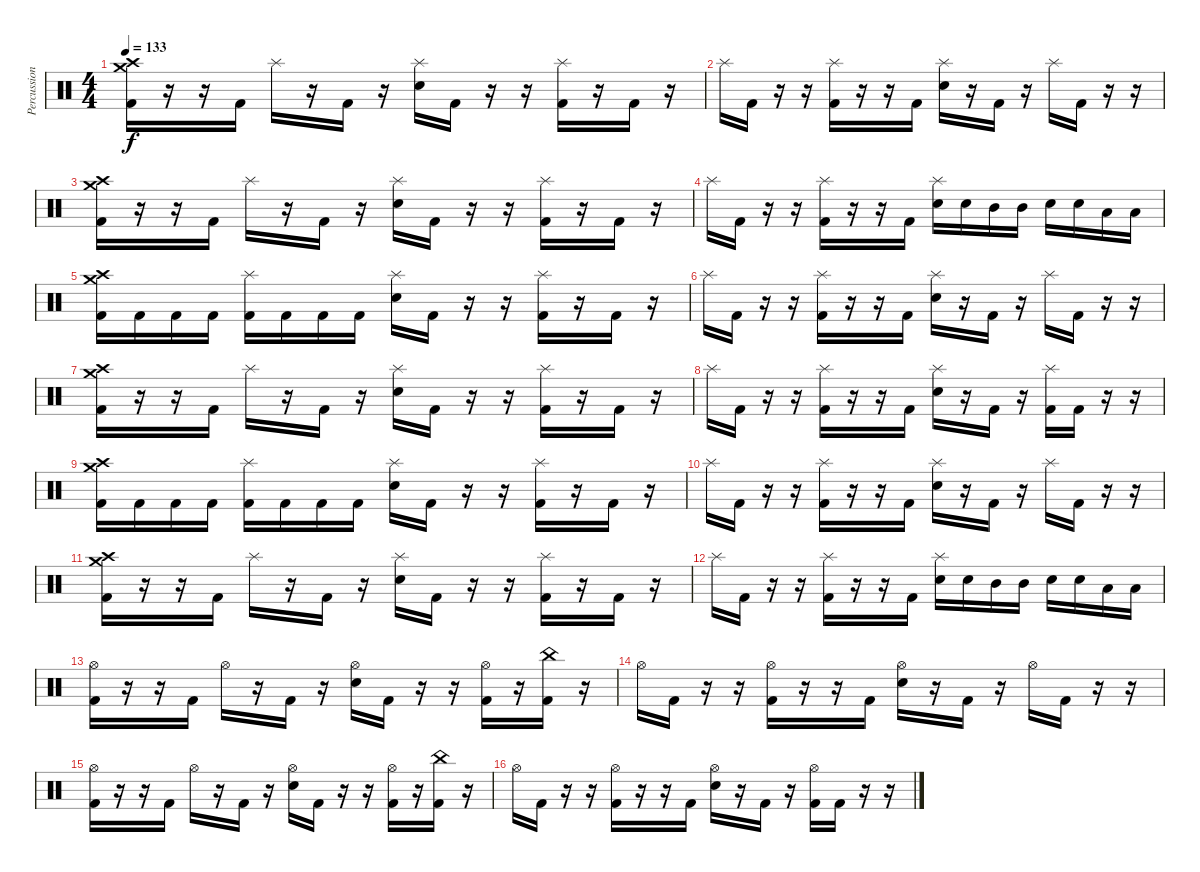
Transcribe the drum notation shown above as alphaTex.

\track ("Percussion" "Percussion") {instrument percussion}
\staff {score}
\articulation defaults
\ts (4 4)
\tempo 133
\clef neutral
\ks c
("Crash high (hit)" "Crash medium (hit)" "Kick (hit) 2").16{dy f} r.16 r.16 "Kick (hit) 2".16 "Splash (hit)".16 r.16 "Kick (hit) 2".16 r.16 ("Splash (hit)" "Electric Snare (hit)").16 "Kick (hit) 2".16 r.16 r.16 ("Splash (hit)" "Kick (hit) 2").16 r.16 "Kick (hit) 2".16 r.16 |
"Splash (hit)".16 "Kick (hit) 2".16 r.16 r.16 ("Splash (hit)" "Kick (hit) 2").16 r.16 r.16 "Kick (hit) 2".16 ("Splash (hit)" "Electric Snare (hit)").16 r.16 "Kick (hit) 2".16 r.16 "Splash (hit)".16 "Kick (hit) 2".16 r.16 r.16 |
("Crash high (hit)" "Crash medium (hit)" "Kick (hit) 2").16 r.16 r.16 "Kick (hit) 2".16 "Splash (hit)".16 r.16 "Kick (hit) 2".16 r.16 ("Splash (hit)" "Electric Snare (hit)").16 "Kick (hit) 2".16 r.16 r.16 ("Splash (hit)" "Kick (hit) 2").16 r.16 "Kick (hit) 2".16 r.16 |
"Splash (hit)".16 "Kick (hit) 2".16 r.16 r.16 ("Splash (hit)" "Kick (hit) 2").16 r.16 r.16 "Kick (hit) 2".16 ("Splash (hit)" "Electric Snare (hit)").16 "Electric Snare (hit)".16 "Mid Tom (hit)".16 "Mid Tom (hit)".16 "Electric Snare (hit)".16 "Electric Snare (hit)".16 "Low Tom (hit)".16 "Low Tom (hit)".16 |
("Crash high (hit)" "Crash medium (hit)" "Kick (hit) 2").16 "Kick (hit) 2".16 "Kick (hit) 2".16 "Kick (hit) 2".16 ("Splash (hit)" "Kick (hit) 2").16 "Kick (hit) 2".16 "Kick (hit) 2".16 "Kick (hit) 2".16 ("Splash (hit)" "Electric Snare (hit)").16 "Kick (hit) 2".16 r.16 r.16 ("Splash (hit)" "Kick (hit) 2").16 r.16 "Kick (hit) 2".16 r.16 |
"Splash (hit)".16 "Kick (hit) 2".16 r.16 r.16 ("Splash (hit)" "Kick (hit) 2").16 r.16 r.16 "Kick (hit) 2".16 ("Splash (hit)" "Electric Snare (hit)").16 r.16 "Kick (hit) 2".16 r.16 "Splash (hit)".16 "Kick (hit) 2".16 r.16 r.16 |
("Crash high (hit)" "Crash medium (hit)" "Kick (hit) 2").16 r.16 r.16 "Kick (hit) 2".16 "Splash (hit)".16 r.16 "Kick (hit) 2".16 r.16 ("Splash (hit)" "Electric Snare (hit)").16 "Kick (hit) 2".16 r.16 r.16 ("Splash (hit)" "Kick (hit) 2").16 r.16 "Kick (hit) 2".16 r.16 |
"Splash (hit)".16 "Kick (hit) 2".16 r.16 r.16 ("Splash (hit)" "Kick (hit) 2").16 r.16 r.16 "Kick (hit) 2".16 ("Splash (hit)" "Electric Snare (hit)").16 r.16 "Kick (hit) 2".16 r.16 ("Splash (hit)" "Kick (hit) 2").16 "Kick (hit) 2".16 r.16 r.16 |
("Crash high (hit)" "Crash medium (hit)" "Kick (hit) 2").16 "Kick (hit) 2".16 "Kick (hit) 2".16 "Kick (hit) 2".16 ("Splash (hit)" "Kick (hit) 2").16 "Kick (hit) 2".16 "Kick (hit) 2".16 "Kick (hit) 2".16 ("Splash (hit)" "Electric Snare (hit)").16 "Kick (hit) 2".16 r.16 r.16 ("Splash (hit)" "Kick (hit) 2").16 r.16 "Kick (hit) 2".16 r.16 |
"Splash (hit)".16 "Kick (hit) 2".16 r.16 r.16 ("Splash (hit)" "Kick (hit) 2").16 r.16 r.16 "Kick (hit) 2".16 ("Splash (hit)" "Electric Snare (hit)").16 r.16 "Kick (hit) 2".16 r.16 "Splash (hit)".16 "Kick (hit) 2".16 r.16 r.16 |
("Crash high (hit)" "Crash medium (hit)" "Kick (hit) 2").16 r.16 r.16 "Kick (hit) 2".16 "Splash (hit)".16 r.16 "Kick (hit) 2".16 r.16 ("Splash (hit)" "Electric Snare (hit)").16 "Kick (hit) 2".16 r.16 r.16 ("Splash (hit)" "Kick (hit) 2").16 r.16 "Kick (hit) 2".16 r.16 |
"Splash (hit)".16 "Kick (hit) 2".16 r.16 r.16 ("Splash (hit)" "Kick (hit) 2").16 r.16 r.16 "Kick (hit) 2".16 ("Splash (hit)" "Electric Snare (hit)").16 "Electric Snare (hit)".16 "Mid Tom (hit)".16 "Mid Tom (hit)".16 "Electric Snare (hit)".16 "Electric Snare (hit)".16 "Low Tom (hit)".16 "Low Tom (hit)".16 |
("Hi-Hat (open)" "Kick (hit) 2").16 r.16 r.16 "Kick (hit) 2".16 "Hi-Hat (open)".16 r.16 "Kick (hit) 2".16 r.16 ("Hi-Hat (open)" "Electric Snare (hit)").16 "Kick (hit) 2".16 r.16 r.16 ("Hi-Hat (open)" "Kick (hit) 2").16 r.16 ("China (hit)" "Kick (hit) 2").16 r.16 |
"Hi-Hat (open)".16 "Kick (hit) 2".16 r.16 r.16 ("Hi-Hat (open)" "Kick (hit) 2").16 r.16 r.16 "Kick (hit) 2".16 ("Hi-Hat (open)" "Electric Snare (hit)").16 r.16 "Kick (hit) 2".16 r.16 "Hi-Hat (open)".16 "Kick (hit) 2".16 r.16 r.16 |
("Hi-Hat (open)" "Kick (hit) 2").16 r.16 r.16 "Kick (hit) 2".16 "Hi-Hat (open)".16 r.16 "Kick (hit) 2".16 r.16 ("Hi-Hat (open)" "Electric Snare (hit)").16 "Kick (hit) 2".16 r.16 r.16 ("Hi-Hat (open)" "Kick (hit) 2").16 r.16 ("China (hit)" "Kick (hit) 2").16 r.16 |
"Hi-Hat (open)".16 "Kick (hit) 2".16 r.16 r.16 ("Hi-Hat (open)" "Kick (hit) 2").16 r.16 r.16 "Kick (hit) 2".16 ("Hi-Hat (open)" "Electric Snare (hit)").16 r.16 "Kick (hit) 2".16 r.16 ("Hi-Hat (open)" "Kick (hit) 2").16 "Kick (hit) 2".16 r.16 r.16
